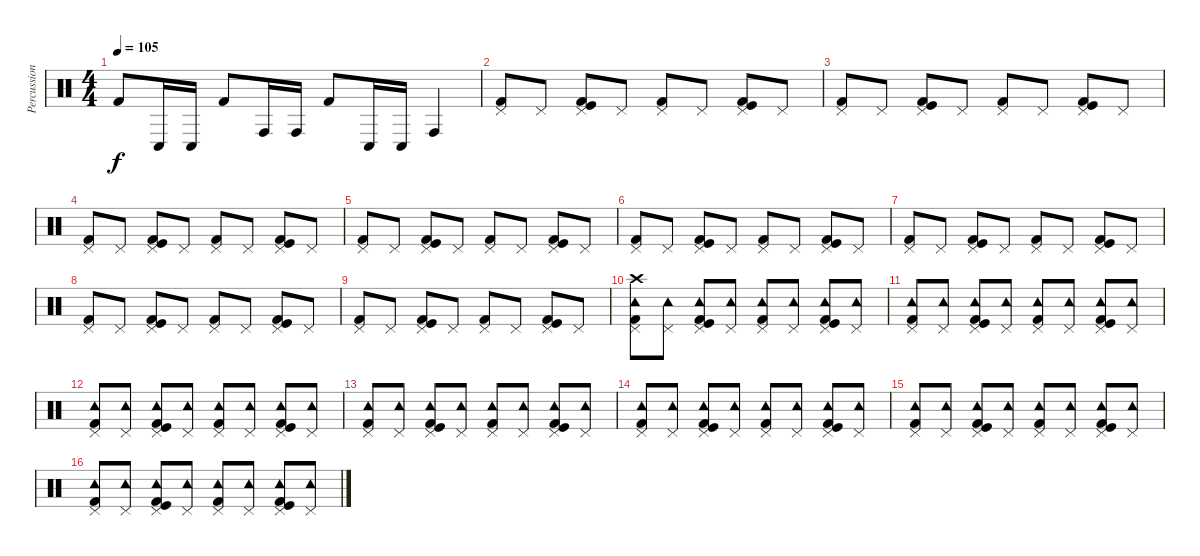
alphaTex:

\track ("Percussion" "Percussion") {instrument percussion}
\staff {score}
\articulation defaults
\ts (4 4)
\tempo 105
\clef neutral
\ks aminor "Kick (hit) 2".8{dy f} "Conga low (hit)".16 "Conga low (hit)".16 "Kick (hit) 2".8 "Conga high (hit)".16 "Conga high (hit)".16 "Kick (hit) 2".8 "Conga low (hit)".16 "Conga low (hit)".16 "Conga high (hit)".4
|
("Kick (hit) 2" "Pedal Hi-Hat (hit)").8 "Pedal Hi-Hat (hit)".8 ("Kick (hit)" "Pedal Hi-Hat (hit)" "Kick (hit) 2").8 "Pedal Hi-Hat (hit)".8 ("Kick (hit) 2" "Pedal Hi-Hat (hit)").8 "Pedal Hi-Hat (hit)".8 ("Kick (hit)" "Pedal Hi-Hat (hit)" "Kick (hit) 2").8 "Pedal Hi-Hat (hit)".8 |
("Kick (hit) 2" "Pedal Hi-Hat (hit)").8 "Pedal Hi-Hat (hit)".8 ("Kick (hit)" "Pedal Hi-Hat (hit)" "Kick (hit) 2").8 "Pedal Hi-Hat (hit)".8 ("Kick (hit) 2" "Pedal Hi-Hat (hit)").8 "Pedal Hi-Hat (hit)".8 ("Kick (hit)" "Pedal Hi-Hat (hit)" "Kick (hit) 2").8 "Pedal Hi-Hat (hit)".8 |
("Kick (hit) 2" "Pedal Hi-Hat (hit)").8 "Pedal Hi-Hat (hit)".8 ("Kick (hit)" "Pedal Hi-Hat (hit)" "Kick (hit) 2").8 "Pedal Hi-Hat (hit)".8 ("Kick (hit) 2" "Pedal Hi-Hat (hit)").8 "Pedal Hi-Hat (hit)".8 ("Kick (hit)" "Pedal Hi-Hat (hit)" "Kick (hit) 2").8 "Pedal Hi-Hat (hit)".8 |
("Kick (hit) 2" "Pedal Hi-Hat (hit)").8 "Pedal Hi-Hat (hit)".8 ("Kick (hit)" "Pedal Hi-Hat (hit)" "Kick (hit) 2").8 "Pedal Hi-Hat (hit)".8 ("Kick (hit) 2" "Pedal Hi-Hat (hit)").8 "Pedal Hi-Hat (hit)".8 ("Kick (hit)" "Pedal Hi-Hat (hit)" "Kick (hit) 2").8 "Pedal Hi-Hat (hit)".8 |
("Kick (hit) 2" "Pedal Hi-Hat (hit)").8 "Pedal Hi-Hat (hit)".8 ("Kick (hit)" "Pedal Hi-Hat (hit)" "Kick (hit) 2").8 "Pedal Hi-Hat (hit)".8 ("Kick (hit) 2" "Pedal Hi-Hat (hit)").8 "Pedal Hi-Hat (hit)".8 ("Kick (hit)" "Pedal Hi-Hat (hit)" "Kick (hit) 2").8 "Pedal Hi-Hat (hit)".8 |
("Kick (hit) 2" "Pedal Hi-Hat (hit)").8 "Pedal Hi-Hat (hit)".8 ("Kick (hit)" "Pedal Hi-Hat (hit)" "Kick (hit) 2").8 "Pedal Hi-Hat (hit)".8 ("Kick (hit) 2" "Pedal Hi-Hat (hit)").8 "Pedal Hi-Hat (hit)".8 ("Kick (hit)" "Pedal Hi-Hat (hit)" "Kick (hit) 2").8 "Pedal Hi-Hat (hit)".8 |
("Kick (hit) 2" "Pedal Hi-Hat (hit)").8 "Pedal Hi-Hat (hit)".8 ("Kick (hit)" "Pedal Hi-Hat (hit)" "Kick (hit) 2").8 "Pedal Hi-Hat (hit)".8 ("Kick (hit) 2" "Pedal Hi-Hat (hit)").8 "Pedal Hi-Hat (hit)".8 ("Kick (hit)" "Pedal Hi-Hat (hit)" "Kick (hit) 2").8 "Pedal Hi-Hat (hit)".8 |
("Kick (hit) 2" "Pedal Hi-Hat (hit)").8 "Pedal Hi-Hat (hit)".8 ("Kick (hit)" "Pedal Hi-Hat (hit)" "Kick (hit) 2").8 "Pedal Hi-Hat (hit)".8 ("Kick (hit) 2" "Pedal Hi-Hat (hit)").8 "Pedal Hi-Hat (hit)".8 ("Kick (hit)" "Pedal Hi-Hat (hit)" "Kick (hit) 2").8 "Pedal Hi-Hat (hit)".8 |
("Kick (hit) 2" "Pedal Hi-Hat (hit)" "Tambourine (hit)" "Crash high (hit)").8 ("Pedal Hi-Hat (hit)" "Tambourine (hit)").8 ("Kick (hit)" "Pedal Hi-Hat (hit)" "Tambourine (hit)" "Kick (hit) 2").8 ("Pedal Hi-Hat (hit)" "Tambourine (hit)").8 ("Kick (hit) 2" "Pedal Hi-Hat (hit)" "Tambourine (hit)").8 ("Pedal Hi-Hat (hit)" "Tambourine (hit)").8 ("Kick (hit)" "Pedal Hi-Hat (hit)" "Tambourine (hit)" "Kick (hit) 2").8 ("Pedal Hi-Hat (hit)" "Tambourine (hit)").8 |
("Kick (hit) 2" "Pedal Hi-Hat (hit)" "Tambourine (hit)").8 ("Pedal Hi-Hat (hit)" "Tambourine (hit)").8 ("Kick (hit)" "Pedal Hi-Hat (hit)" "Tambourine (hit)" "Kick (hit) 2").8 ("Pedal Hi-Hat (hit)" "Tambourine (hit)").8 ("Kick (hit) 2" "Pedal Hi-Hat (hit)" "Tambourine (hit)").8 ("Pedal Hi-Hat (hit)" "Tambourine (hit)").8 ("Kick (hit)" "Pedal Hi-Hat (hit)" "Tambourine (hit)" "Kick (hit) 2").8 ("Pedal Hi-Hat (hit)" "Tambourine (hit)").8 |
("Kick (hit) 2" "Pedal Hi-Hat (hit)" "Tambourine (hit)").8 ("Pedal Hi-Hat (hit)" "Tambourine (hit)").8 ("Kick (hit)" "Pedal Hi-Hat (hit)" "Tambourine (hit)" "Kick (hit) 2").8 ("Pedal Hi-Hat (hit)" "Tambourine (hit)").8 ("Kick (hit) 2" "Pedal Hi-Hat (hit)" "Tambourine (hit)").8 ("Pedal Hi-Hat (hit)" "Tambourine (hit)").8 ("Kick (hit)" "Pedal Hi-Hat (hit)" "Tambourine (hit)" "Kick (hit) 2").8 ("Pedal Hi-Hat (hit)" "Tambourine (hit)").8 |
("Kick (hit) 2" "Pedal Hi-Hat (hit)" "Tambourine (hit)").8 ("Pedal Hi-Hat (hit)" "Tambourine (hit)").8 ("Kick (hit)" "Pedal Hi-Hat (hit)" "Tambourine (hit)" "Kick (hit) 2").8 ("Pedal Hi-Hat (hit)" "Tambourine (hit)").8 ("Kick (hit) 2" "Pedal Hi-Hat (hit)" "Tambourine (hit)").8 ("Pedal Hi-Hat (hit)" "Tambourine (hit)").8 ("Kick (hit)" "Pedal Hi-Hat (hit)" "Tambourine (hit)" "Kick (hit) 2").8 ("Pedal Hi-Hat (hit)" "Tambourine (hit)").8 |
("Kick (hit) 2" "Pedal Hi-Hat (hit)" "Tambourine (hit)").8 ("Pedal Hi-Hat (hit)" "Tambourine (hit)").8 ("Kick (hit)" "Pedal Hi-Hat (hit)" "Tambourine (hit)" "Kick (hit) 2").8 ("Pedal Hi-Hat (hit)" "Tambourine (hit)").8 ("Kick (hit) 2" "Pedal Hi-Hat (hit)" "Tambourine (hit)").8 ("Pedal Hi-Hat (hit)" "Tambourine (hit)").8 ("Kick (hit)" "Pedal Hi-Hat (hit)" "Tambourine (hit)" "Kick (hit) 2").8 ("Pedal Hi-Hat (hit)" "Tambourine (hit)").8 |
("Kick (hit) 2" "Pedal Hi-Hat (hit)" "Tambourine (hit)").8 ("Pedal Hi-Hat (hit)" "Tambourine (hit)").8 ("Kick (hit)" "Pedal Hi-Hat (hit)" "Tambourine (hit)" "Kick (hit) 2").8 ("Pedal Hi-Hat (hit)" "Tambourine (hit)").8 ("Kick (hit) 2" "Pedal Hi-Hat (hit)" "Tambourine (hit)").8 ("Pedal Hi-Hat (hit)" "Tambourine (hit)").8 ("Kick (hit)" "Pedal Hi-Hat (hit)" "Tambourine (hit)" "Kick (hit) 2").8 ("Pedal Hi-Hat (hit)" "Tambourine (hit)").8 |
("Kick (hit) 2" "Pedal Hi-Hat (hit)" "Tambourine (hit)").8 ("Pedal Hi-Hat (hit)" "Tambourine (hit)").8 ("Kick (hit)" "Pedal Hi-Hat (hit)" "Tambourine (hit)" "Kick (hit) 2").8 ("Pedal Hi-Hat (hit)" "Tambourine (hit)").8 ("Kick (hit) 2" "Pedal Hi-Hat (hit)" "Tambourine (hit)").8 ("Pedal Hi-Hat (hit)" "Tambourine (hit)").8 ("Kick (hit)" "Pedal Hi-Hat (hit)" "Tambourine (hit)" "Kick (hit) 2").8 ("Pedal Hi-Hat (hit)" "Tambourine (hit)").8
